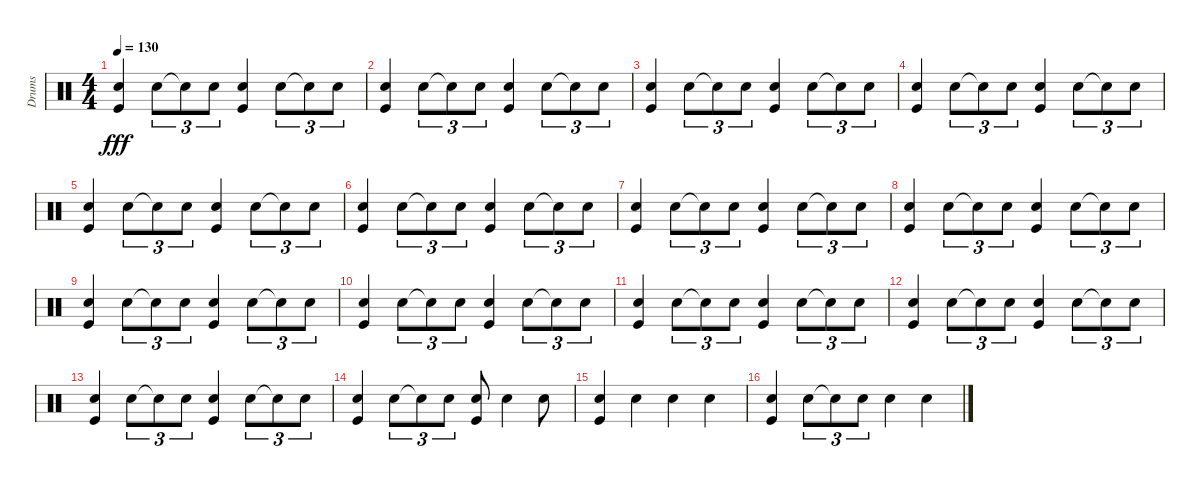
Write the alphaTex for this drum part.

\track ("Drums" "Drums") {instrument percussion}
\staff {score}
\articulation defaults
\ts (4 4)
\tempo 130
\clef neutral
\ks c
("Kick (hit)" "Snare (hit) 2").4{dy fff} "Hand Clap (hit)".8{tu (3 2)} "Snare (hit)"{t}.8{tu (3 2)} "Snare (hit) 2".8{tu (3 2)} ("Kick (hit)" "Snare (hit) 2").4 "Hand Clap (hit)".8{tu (3 2)} "Snare (hit)"{t}.8{tu (3 2)} "Snare (hit) 2".8{tu (3 2)} |
("Kick (hit)" "Snare (hit) 2").4 "Hand Clap (hit)".8{tu (3 2)} "Snare (hit)"{t}.8{tu (3 2)} "Snare (hit) 2".8{tu (3 2)} ("Kick (hit)" "Snare (hit) 2").4 "Hand Clap (hit)".8{tu (3 2)} "Snare (hit)"{t}.8{tu (3 2)} "Snare (hit) 2".8{tu (3 2)} |
("Kick (hit)" "Snare (hit) 2").4 "Hand Clap (hit)".8{tu (3 2)} "Snare (hit)"{t}.8{tu (3 2)} "Snare (hit) 2".8{tu (3 2)} ("Kick (hit)" "Snare (hit) 2").4 "Hand Clap (hit)".8{tu (3 2)} "Snare (hit)"{t}.8{tu (3 2)} "Snare (hit) 2".8{tu (3 2)} |
("Kick (hit)" "Snare (hit) 2").4 "Hand Clap (hit)".8{tu (3 2)} "Snare (hit)"{t}.8{tu (3 2)} "Snare (hit) 2".8{tu (3 2)} ("Kick (hit)" "Snare (hit) 2").4 "Hand Clap (hit)".8{tu (3 2)} "Snare (hit)"{t}.8{tu (3 2)} "Snare (hit) 2".8{tu (3 2)} |
("Kick (hit)" "Snare (hit) 2").4 "Hand Clap (hit)".8{tu (3 2)} "Snare (hit)"{t}.8{tu (3 2)} "Snare (hit) 2".8{tu (3 2)} ("Kick (hit)" "Snare (hit) 2").4 "Hand Clap (hit)".8{tu (3 2)} "Snare (hit)"{t}.8{tu (3 2)} "Snare (hit) 2".8{tu (3 2)} |
("Kick (hit)" "Snare (hit) 2").4 "Hand Clap (hit)".8{tu (3 2)} "Snare (hit)"{t}.8{tu (3 2)} "Snare (hit) 2".8{tu (3 2)} ("Kick (hit)" "Snare (hit) 2").4 "Hand Clap (hit)".8{tu (3 2)} "Snare (hit)"{t}.8{tu (3 2)} "Snare (hit) 2".8{tu (3 2)} |
("Kick (hit)" "Snare (hit) 2").4 "Hand Clap (hit)".8{tu (3 2)} "Snare (hit)"{t}.8{tu (3 2)} "Snare (hit) 2".8{tu (3 2)} ("Kick (hit)" "Snare (hit) 2").4 "Hand Clap (hit)".8{tu (3 2)} "Snare (hit)"{t}.8{tu (3 2)} "Snare (hit) 2".8{tu (3 2)} |
("Kick (hit)" "Snare (hit) 2").4 "Hand Clap (hit)".8{tu (3 2)} "Snare (hit)"{t}.8{tu (3 2)} "Snare (hit) 2".8{tu (3 2)} ("Kick (hit)" "Snare (hit) 2").4 "Hand Clap (hit)".8{tu (3 2)} "Snare (hit)"{t}.8{tu (3 2)} "Snare (hit) 2".8{tu (3 2)} |
("Kick (hit)" "Snare (hit) 2").4 "Hand Clap (hit)".8{tu (3 2)} "Snare (hit)"{t}.8{tu (3 2)} "Snare (hit) 2".8{tu (3 2)} ("Kick (hit)" "Snare (hit) 2").4 "Hand Clap (hit)".8{tu (3 2)} "Snare (hit)"{t}.8{tu (3 2)} "Snare (hit) 2".8{tu (3 2)} |
("Kick (hit)" "Snare (hit) 2").4 "Hand Clap (hit)".8{tu (3 2)} "Snare (hit)"{t}.8{tu (3 2)} "Snare (hit) 2".8{tu (3 2)} ("Kick (hit)" "Snare (hit) 2").4 "Hand Clap (hit)".8{tu (3 2)} "Snare (hit)"{t}.8{tu (3 2)} "Snare (hit) 2".8{tu (3 2)} |
("Kick (hit)" "Snare (hit) 2").4 "Hand Clap (hit)".8{tu (3 2)} "Snare (hit)"{t}.8{tu (3 2)} "Snare (hit) 2".8{tu (3 2)} ("Kick (hit)" "Snare (hit) 2").4 "Hand Clap (hit)".8{tu (3 2)} "Snare (hit)"{t}.8{tu (3 2)} "Snare (hit) 2".8{tu (3 2)} |
("Kick (hit)" "Snare (hit) 2").4 "Hand Clap (hit)".8{tu (3 2)} "Snare (hit)"{t}.8{tu (3 2)} "Snare (hit) 2".8{tu (3 2)} ("Kick (hit)" "Snare (hit) 2").4 "Hand Clap (hit)".8{tu (3 2)} "Snare (hit)"{t}.8{tu (3 2)} "Snare (hit) 2".8{tu (3 2)} |
("Kick (hit)" "Snare (hit) 2").4 "Hand Clap (hit)".8{tu (3 2)} "Snare (hit)"{t}.8{tu (3 2)} "Snare (hit) 2".8{tu (3 2)} ("Kick (hit)" "Snare (hit) 2").4 "Hand Clap (hit)".8{tu (3 2)} "Snare (hit)"{t}.8{tu (3 2)} "Snare (hit) 2".8{tu (3 2)} |
("Snare (hit) 2" "Kick (hit)").4 "Snare (hit) 2".8{tu (3 2)} "Snare (hit)"{t}.8{tu (3 2)} "Snare (hit) 2".8{tu (3 2)} ("Kick (hit)" "Snare (hit) 2").8 "Snare (hit) 2".4 "Snare (hit) 2".8 |
("Snare (hit) 2" "Kick (hit)").4 "Snare (hit) 2".4 "Snare (hit) 2".4 "Snare (hit) 2".4 |
("Kick (hit)" "Snare (hit) 2").4 "Snare (hit) 2".8{tu (3 2)} "Snare (hit)"{t}.8{tu (3 2)} "Snare (hit) 2".8{tu (3 2)} "Snare (hit) 2".4 "Snare (hit) 2".4
